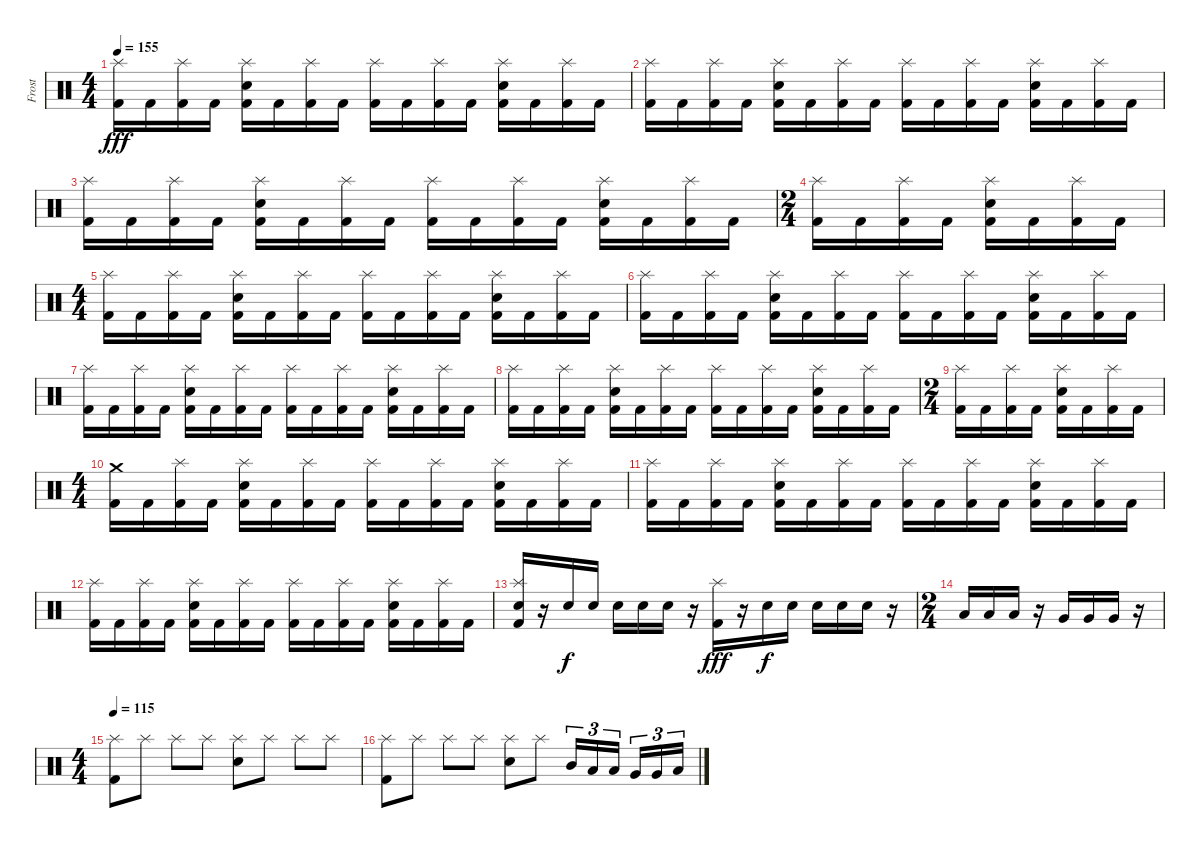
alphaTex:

\track ("Frost" "Frost") {instrument percussion}
\staff {score}
\articulation defaults
\ts (4 4)
\tempo 155
\clef neutral
\ks c
("Kick (hit) 2" "Splash (hit)").16{dy fff} "Kick (hit) 2".16 ("Kick (hit) 2" "Splash (hit)").16 "Kick (hit) 2".16 ("Kick (hit) 2" "Snare (hit) 2" "Splash (hit)").16 "Kick (hit) 2".16 ("Kick (hit) 2" "Splash (hit)").16 "Kick (hit) 2".16 ("Kick (hit) 2" "Splash (hit)").16 "Kick (hit) 2".16 ("Kick (hit) 2" "Splash (hit)").16 "Kick (hit) 2".16 ("Kick (hit) 2" "Snare (hit) 2" "Splash (hit)").16 "Kick (hit) 2".16 ("Kick (hit) 2" "Splash (hit)").16 "Kick (hit) 2".16 |
("Kick (hit) 2" "Splash (hit)").16 "Kick (hit) 2".16 ("Kick (hit) 2" "Splash (hit)").16 "Kick (hit) 2".16 ("Kick (hit) 2" "Snare (hit) 2" "Splash (hit)").16 "Kick (hit) 2".16 ("Kick (hit) 2" "Splash (hit)").16 "Kick (hit) 2".16 ("Kick (hit) 2" "Splash (hit)").16 "Kick (hit) 2".16 ("Kick (hit) 2" "Splash (hit)").16 "Kick (hit) 2".16 ("Kick (hit) 2" "Snare (hit) 2" "Splash (hit)").16 "Kick (hit) 2".16 ("Kick (hit) 2" "Splash (hit)").16 "Kick (hit) 2".16 |
("Kick (hit) 2" "Splash (hit)").16 "Kick (hit) 2".16 ("Kick (hit) 2" "Splash (hit)").16 "Kick (hit) 2".16 ("Kick (hit) 2" "Snare (hit) 2" "Splash (hit)").16 "Kick (hit) 2".16 ("Kick (hit) 2" "Splash (hit)").16 "Kick (hit) 2".16 ("Kick (hit) 2" "Splash (hit)").16 "Kick (hit) 2".16 ("Kick (hit) 2" "Splash (hit)").16 "Kick (hit) 2".16 ("Kick (hit) 2" "Snare (hit) 2" "Splash (hit)").16 "Kick (hit) 2".16 ("Kick (hit) 2" "Splash (hit)").16 "Kick (hit) 2".16 |
\ts (2 4)
("Kick (hit) 2" "Splash (hit)").16 "Kick (hit) 2".16 ("Kick (hit) 2" "Splash (hit)").16 "Kick (hit) 2".16 ("Kick (hit) 2" "Snare (hit) 2" "Splash (hit)").16 "Kick (hit) 2".16 ("Kick (hit) 2" "Splash (hit)").16 "Kick (hit) 2".16 |
\ts (4 4)
("Kick (hit) 2" "Splash (hit)").16 "Kick (hit) 2".16 ("Kick (hit) 2" "Splash (hit)").16 "Kick (hit) 2".16 ("Kick (hit) 2" "Snare (hit) 2" "Splash (hit)").16 "Kick (hit) 2".16 ("Kick (hit) 2" "Splash (hit)").16 "Kick (hit) 2".16 ("Kick (hit) 2" "Splash (hit)").16 "Kick (hit) 2".16 ("Kick (hit) 2" "Splash (hit)").16 "Kick (hit) 2".16 ("Kick (hit) 2" "Snare (hit) 2" "Splash (hit)").16 "Kick (hit) 2".16 ("Kick (hit) 2" "Splash (hit)").16 "Kick (hit) 2".16 |
("Kick (hit) 2" "Splash (hit)").16 "Kick (hit) 2".16 ("Kick (hit) 2" "Splash (hit)").16 "Kick (hit) 2".16 ("Kick (hit) 2" "Snare (hit) 2" "Splash (hit)").16 "Kick (hit) 2".16 ("Kick (hit) 2" "Splash (hit)").16 "Kick (hit) 2".16 ("Kick (hit) 2" "Splash (hit)").16 "Kick (hit) 2".16 ("Kick (hit) 2" "Splash (hit)").16 "Kick (hit) 2".16 ("Kick (hit) 2" "Snare (hit) 2" "Splash (hit)").16 "Kick (hit) 2".16 ("Kick (hit) 2" "Splash (hit)").16 "Kick (hit) 2".16 |
("Kick (hit) 2" "Splash (hit)").16 "Kick (hit) 2".16 ("Kick (hit) 2" "Splash (hit)").16 "Kick (hit) 2".16 ("Kick (hit) 2" "Snare (hit) 2" "Splash (hit)").16 "Kick (hit) 2".16 ("Kick (hit) 2" "Splash (hit)").16 "Kick (hit) 2".16 ("Kick (hit) 2" "Splash (hit)").16 "Kick (hit) 2".16 ("Kick (hit) 2" "Splash (hit)").16 "Kick (hit) 2".16 ("Kick (hit) 2" "Snare (hit) 2" "Splash (hit)").16 "Kick (hit) 2".16 ("Kick (hit) 2" "Splash (hit)").16 "Kick (hit) 2".16 |
("Kick (hit) 2" "Splash (hit)").16 "Kick (hit) 2".16 ("Kick (hit) 2" "Splash (hit)").16 "Kick (hit) 2".16 ("Kick (hit) 2" "Snare (hit) 2" "Splash (hit)").16 "Kick (hit) 2".16 ("Kick (hit) 2" "Splash (hit)").16 "Kick (hit) 2".16 ("Kick (hit) 2" "Splash (hit)").16 "Kick (hit) 2".16 ("Kick (hit) 2" "Splash (hit)").16 "Kick (hit) 2".16 ("Kick (hit) 2" "Snare (hit) 2" "Splash (hit)").16 "Kick (hit) 2".16 ("Kick (hit) 2" "Splash (hit)").16 "Kick (hit) 2".16 |
\ts (2 4)
("Kick (hit) 2" "Splash (hit)").16 "Kick (hit) 2".16 ("Kick (hit) 2" "Splash (hit)").16 "Kick (hit) 2".16 ("Kick (hit) 2" "Snare (hit) 2" "Splash (hit)").16 "Kick (hit) 2".16 ("Kick (hit) 2" "Splash (hit)").16 "Kick (hit) 2".16 |
\ts (4 4)
("Kick (hit) 2" "Crash medium (hit)").16 "Kick (hit) 2".16 ("Kick (hit) 2" "Splash (hit)").16 "Kick (hit) 2".16 ("Kick (hit) 2" "Snare (hit) 2" "Splash (hit)").16 "Kick (hit) 2".16 ("Kick (hit) 2" "Splash (hit)").16 "Kick (hit) 2".16 ("Kick (hit) 2" "Splash (hit)").16 "Kick (hit) 2".16 ("Kick (hit) 2" "Splash (hit)").16 "Kick (hit) 2".16 ("Kick (hit) 2" "Snare (hit) 2" "Splash (hit)").16 "Kick (hit) 2".16 ("Kick (hit) 2" "Splash (hit)").16 "Kick (hit) 2".16 |
("Kick (hit) 2" "Splash (hit)").16 "Kick (hit) 2".16 ("Kick (hit) 2" "Splash (hit)").16 "Kick (hit) 2".16 ("Kick (hit) 2" "Snare (hit) 2" "Splash (hit)").16 "Kick (hit) 2".16 ("Kick (hit) 2" "Splash (hit)").16 "Kick (hit) 2".16 ("Kick (hit) 2" "Splash (hit)").16 "Kick (hit) 2".16 ("Kick (hit) 2" "Splash (hit)").16 "Kick (hit) 2".16 ("Kick (hit) 2" "Snare (hit) 2" "Splash (hit)").16 "Kick (hit) 2".16 ("Kick (hit) 2" "Splash (hit)").16 "Kick (hit) 2".16 |
("Kick (hit) 2" "Splash (hit)").16 "Kick (hit) 2".16 ("Kick (hit) 2" "Splash (hit)").16 "Kick (hit) 2".16 ("Kick (hit) 2" "Snare (hit) 2" "Splash (hit)").16 "Kick (hit) 2".16 ("Kick (hit) 2" "Splash (hit)").16 "Kick (hit) 2".16 ("Kick (hit) 2" "Splash (hit)").16 "Kick (hit) 2".16 ("Kick (hit) 2" "Splash (hit)").16 "Kick (hit) 2".16 ("Kick (hit) 2" "Snare (hit) 2" "Splash (hit)").16 "Kick (hit) 2".16 ("Kick (hit) 2" "Splash (hit)").16 "Kick (hit) 2".16 |
("Kick (hit) 2" "Snare (hit) 2" "Splash (hit)").16 r.16 "Snare (hit) 2".16{dy f} "Snare (hit) 2".16 "Snare (hit) 2".16 "Snare (hit) 2".16 "Snare (hit) 2".16 r.16 ("Kick (hit) 2" "Splash (hit)").16{dy fff} r.16 "Snare (hit) 2".16{dy f} "Snare (hit) 2".16 "Snare (hit) 2".16 "Snare (hit) 2".16 "Snare (hit) 2".16 r.16 |
\ts (2 4)
"Low Tom (hit)".16 "Low Tom (hit)".16 "Low Tom (hit)".16 r.16 "Very Low Tom (hit)".16 "Very Low Tom (hit)".16 "Very Low Tom (hit)".16 r.16 |
\ts (4 4)
\tempo 115
("Kick (hit) 2" "Splash (hit)").8 "Splash (hit)".8 "Splash (hit)".8 "Splash (hit)".8 ("Snare (hit) 2" "Splash (hit)").8 "Splash (hit)".8 "Splash (hit)".8 "Splash (hit)".8 |
("Kick (hit) 2" "Splash (hit)").8 "Splash (hit)".8 "Splash (hit)".8 "Splash (hit)".8 ("Snare (hit) 2" "Splash (hit)").8 "Splash (hit)".8 "Mid Tom (hit)".16{tu (3 2)} "Low Tom (hit)".16{tu (3 2)} "Low Tom (hit)".16{tu (3 2)} "Very Low Tom (hit)".16{tu (3 2)} "Very Low Tom (hit)".16{tu (3 2)} "Low Floor Tom (hit)".16{tu (3 2)}
